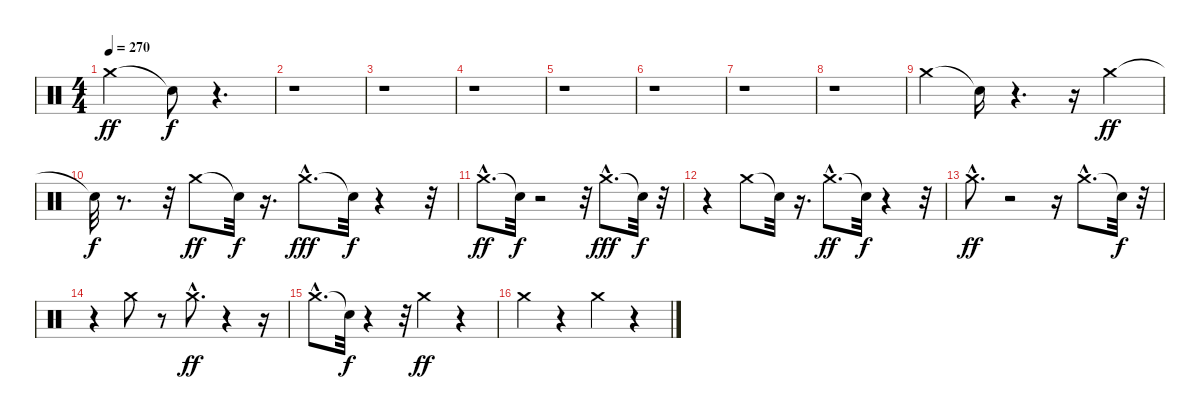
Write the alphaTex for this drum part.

\track "" {instrument percussion}
\staff {score}
\articulation defaults
\ts (4 4)
\tempo 270
\clef neutral
\ks c "Crash medium (hit)".2{dy ff} "Snare (hit)"{t}.8{dy f}
r.4{d} |
r.1 |
r.1 |
r.1 |
r.1 |
r.1 |
r.1 |
r.1 |
"Crash medium (hit)".4 "Snare (hit)"{t}.16 r.4{d} r.16 "Crash medium (hit)".4{dy ff} |
"Snare (hit)"{t}.32{dy f} r.8{d} r.32 "Crash medium (hit)".8{dy ff} "Snare (hit)"{t}.32{dy f} r.16{d} "Crash medium (hit)"{hac}.8{d dy fff} "Snare (hit)"{t}.32{dy f} r.4 r.32 |
"Crash medium (hit)"{hac}.8{d dy ff} "Snare (hit)"{t}.32{dy f} r.2 r.32 "Crash medium (hit)"{hac}.8{d dy fff} "Snare (hit)"{t}.32{dy f} r.32 |
r.4 "Crash medium (hit)".8 "Snare (hit)"{t}.32 r.16{d} "Crash medium (hit)"{hac}.8{d dy ff} "Snare (hit)"{t}.32{dy f} r.4 r.32 |
"Crash medium (hit)"{hac}.8{d dy ff} r.2 r.16 "Crash medium (hit)"{hac}.8{d} "Snare (hit)"{t}.32{dy f} r.32 |
r.4 "Crash medium (hit)".8 r.8 "Crash medium (hit)"{hac}.8{d dy ff} r.4 r.16 |
"Crash medium (hit)"{hac}.8{d} "Snare (hit)"{t}.32{dy f} r.4 r.32 "Crash medium (hit)".4{dy ff} r.4 |
"Crash medium (hit)".4 r.4 "Crash medium (hit)".4 r.4
